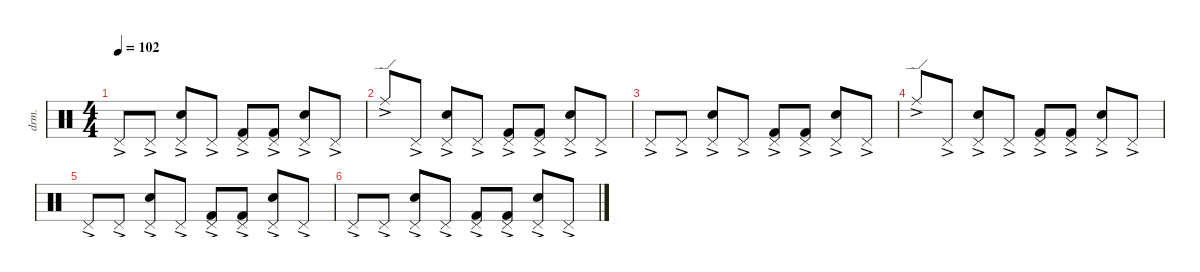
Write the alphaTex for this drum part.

\defaultSystemsLayout 4
\hideDynamics
\bracketExtendMode nobrackets
\otherSystemsTrackNameOrientation horizontal
\track ("Drumkit" "drm.") {instrument percussion}
\staff {score}
\articulation defaults
\ts (4 4)
\tempo 102
\clef neutral
\ks c "Pedal Hi-Hat (hit)"{ac}.8{dy p beam Up} "Pedal Hi-Hat (hit)"{ac}.8{beam Up}
("Snare (hit) 2" "Pedal Hi-Hat (hit)"{ac}).8{beam Up} "Pedal Hi-Hat (hit)"{ac}.8{beam Up} ("Pedal Hi-Hat (hit)"{ac} "Kick (hit) 2").8{beam Up} ("Pedal Hi-Hat (hit)"{ac} "Kick (hit) 2").8{beam Up} ("Snare (hit) 2" "Pedal Hi-Hat (hit)"{ac}).8{beam Up} "Pedal Hi-Hat (hit)"{ac}.8{beam Up} |
"Ride (edge)"{ac}.8{beam Up} "Pedal Hi-Hat (hit)"{ac}.8{beam Up} ("Snare (hit) 2" "Pedal Hi-Hat (hit)"{ac}).8{beam Up} "Pedal Hi-Hat (hit)"{ac}.8{beam Up} ("Pedal Hi-Hat (hit)"{ac} "Kick (hit) 2").8{beam Up} ("Pedal Hi-Hat (hit)"{ac} "Kick (hit) 2").8{beam Up} ("Snare (hit) 2" "Pedal Hi-Hat (hit)"{ac}).8{beam Up} "Pedal Hi-Hat (hit)"{ac}.8{beam Up} |
"Pedal Hi-Hat (hit)"{ac}.8{beam Up} "Pedal Hi-Hat (hit)"{ac}.8{beam Up} ("Snare (hit) 2" "Pedal Hi-Hat (hit)"{ac}).8{beam Up} "Pedal Hi-Hat (hit)"{ac}.8{beam Up} ("Pedal Hi-Hat (hit)"{ac} "Kick (hit) 2").8{beam Up} ("Pedal Hi-Hat (hit)"{ac} "Kick (hit) 2").8{beam Up} ("Snare (hit) 2" "Pedal Hi-Hat (hit)"{ac}).8{beam Up} "Pedal Hi-Hat (hit)"{ac}.8{beam Up} |
"Ride (edge)"{ac}.8{beam Up} "Pedal Hi-Hat (hit)"{ac}.8{beam Up} ("Snare (hit) 2" "Pedal Hi-Hat (hit)"{ac}).8{beam Up} "Pedal Hi-Hat (hit)"{ac}.8{beam Up} ("Pedal Hi-Hat (hit)"{ac} "Kick (hit) 2").8{beam Up} ("Pedal Hi-Hat (hit)"{ac} "Kick (hit) 2").8{beam Up} ("Snare (hit) 2" "Pedal Hi-Hat (hit)"{ac}).8{beam Up} "Pedal Hi-Hat (hit)"{ac}.8{beam Up} |
"Pedal Hi-Hat (hit)"{ac}.8{beam Up} "Pedal Hi-Hat (hit)"{ac}.8{beam Up} ("Snare (hit) 2" "Pedal Hi-Hat (hit)"{ac}).8{beam Up} "Pedal Hi-Hat (hit)"{ac}.8{beam Up} ("Pedal Hi-Hat (hit)"{ac} "Kick (hit) 2").8{beam Up} ("Pedal Hi-Hat (hit)"{ac} "Kick (hit) 2").8{beam Up} ("Snare (hit) 2" "Pedal Hi-Hat (hit)"{ac}).8{beam Up} "Pedal Hi-Hat (hit)"{ac}.8{beam Up} |
"Pedal Hi-Hat (hit)"{ac}.8{beam Up} "Pedal Hi-Hat (hit)"{ac}.8{beam Up} ("Snare (hit) 2" "Pedal Hi-Hat (hit)"{ac}).8{beam Up} "Pedal Hi-Hat (hit)"{ac}.8{beam Up} ("Pedal Hi-Hat (hit)"{ac} "Kick (hit) 2").8{beam Up} ("Pedal Hi-Hat (hit)"{ac} "Kick (hit) 2").8{beam Up} ("Snare (hit) 2" "Pedal Hi-Hat (hit)"{ac}).8{beam Up} "Pedal Hi-Hat (hit)"{ac}.8{beam Up}
